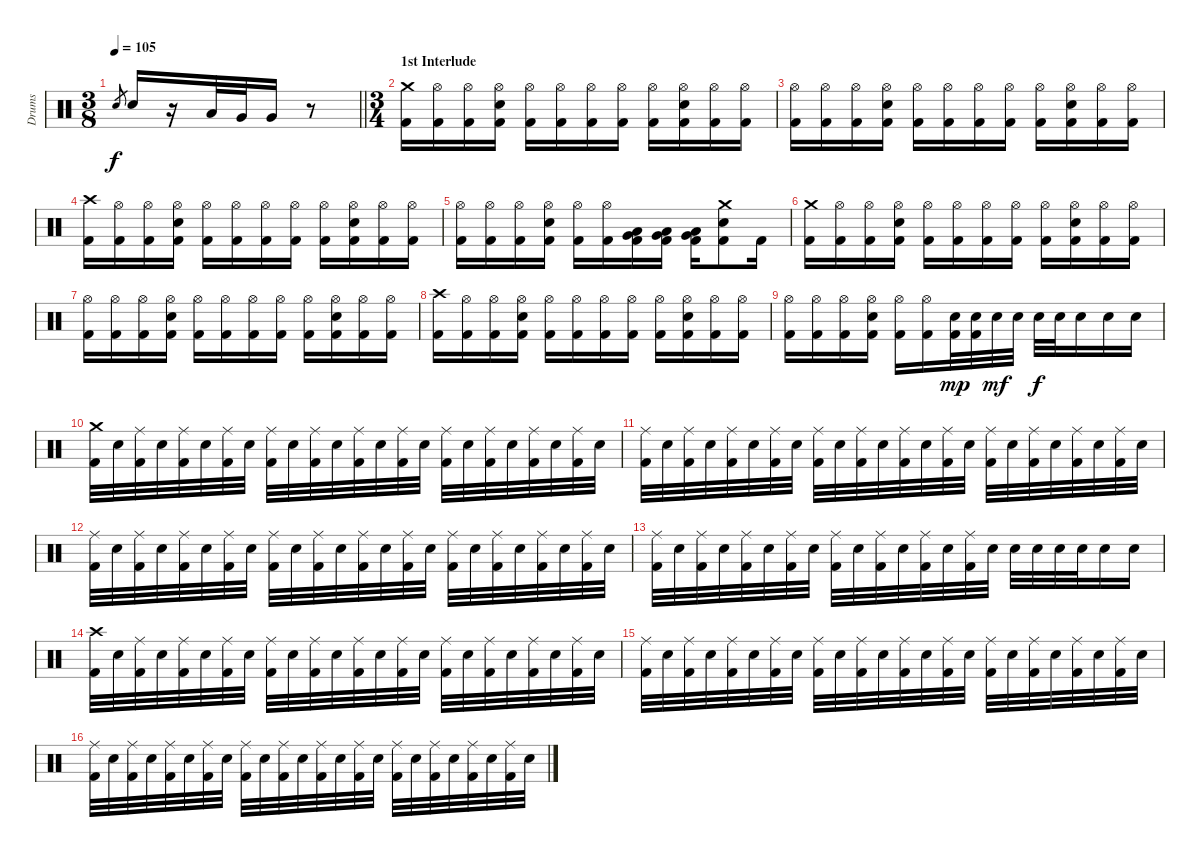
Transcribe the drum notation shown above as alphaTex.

\track ("Drums" "Drums") {instrument percussion}
\staff {score}
\articulation defaults
\ts (3 8)
\tempo 105
\clef neutral
\barLineRight lightlight
\ks c "Electric Snare (hit)".8{gr dy f} "Electric Snare (hit)".16
r.16 "Low Tom (hit)".32 "Very Low Tom (hit)".32 "Very Low Tom (hit)".16 r.8 |
\ts (3 4)
\section ("" "1st Interlude")
("Kick (hit) 2" "Crash medium (hit)").16 ("Kick (hit) 2" "Hi-Hat (open)").16 ("Kick (hit) 2" "Hi-Hat (open)").16 ("Kick (hit) 2" "Electric Snare (hit)" "Hi-Hat (open)").16 ("Kick (hit) 2" "Hi-Hat (open)").16 ("Kick (hit) 2" "Hi-Hat (open)").16 ("Kick (hit) 2" "Hi-Hat (open)").16 ("Kick (hit) 2" "Hi-Hat (open)").16 ("Kick (hit) 2" "Hi-Hat (open)").16 ("Kick (hit) 2" "Electric Snare (hit)" "Hi-Hat (open)").16 ("Kick (hit) 2" "Hi-Hat (open)").16 ("Kick (hit) 2" "Hi-Hat (open)").16 |
("Kick (hit) 2" "Hi-Hat (open)").16 ("Kick (hit) 2" "Hi-Hat (open)").16 ("Kick (hit) 2" "Hi-Hat (open)").16 ("Kick (hit) 2" "Electric Snare (hit)" "Hi-Hat (open)").16 ("Kick (hit) 2" "Hi-Hat (open)").16 ("Kick (hit) 2" "Hi-Hat (open)").16 ("Kick (hit) 2" "Hi-Hat (open)").16 ("Kick (hit) 2" "Hi-Hat (open)").16 ("Kick (hit) 2" "Hi-Hat (open)").16 ("Kick (hit) 2" "Electric Snare (hit)" "Hi-Hat (open)").16 ("Kick (hit) 2" "Hi-Hat (open)").16 ("Kick (hit) 2" "Hi-Hat (open)").16 |
("Kick (hit) 2" "Crash high (hit)").16 ("Kick (hit) 2" "Hi-Hat (open)").16 ("Kick (hit) 2" "Hi-Hat (open)").16 ("Kick (hit) 2" "Electric Snare (hit)" "Hi-Hat (open)").16 ("Kick (hit) 2" "Hi-Hat (open)").16 ("Kick (hit) 2" "Hi-Hat (open)").16 ("Kick (hit) 2" "Hi-Hat (open)").16 ("Kick (hit) 2" "Hi-Hat (open)").16 ("Kick (hit) 2" "Hi-Hat (open)").16 ("Kick (hit) 2" "Electric Snare (hit)" "Hi-Hat (open)").16 ("Kick (hit) 2" "Hi-Hat (open)").16 ("Kick (hit) 2" "Hi-Hat (open)").16 |
("Kick (hit) 2" "Hi-Hat (open)").16 ("Kick (hit) 2" "Hi-Hat (open)").16 ("Kick (hit) 2" "Hi-Hat (open)").16 ("Kick (hit) 2" "Electric Snare (hit)" "Hi-Hat (open)").16 ("Kick (hit) 2" "Hi-Hat (open)").16 ("Kick (hit) 2" "Hi-Hat (open)").16 ("Kick (hit) 2" "Very Low Tom (hit)" "Low Tom (hit)").16 ("Kick (hit) 2" "Very Low Tom (hit)" "Low Tom (hit)").16 ("Kick (hit) 2" "Very Low Tom (hit)" "Low Tom (hit)").16 ("Kick (hit) 2" "Electric Snare (hit)" "Crash medium (hit)").8 "Kick (hit) 2".16 |
("Kick (hit) 2" "Crash medium (hit)").16 ("Kick (hit) 2" "Hi-Hat (open)").16 ("Kick (hit) 2" "Hi-Hat (open)").16 ("Kick (hit) 2" "Electric Snare (hit)" "Hi-Hat (open)").16 ("Kick (hit) 2" "Hi-Hat (open)").16 ("Kick (hit) 2" "Hi-Hat (open)").16 ("Kick (hit) 2" "Hi-Hat (open)").16 ("Kick (hit) 2" "Hi-Hat (open)").16 ("Kick (hit) 2" "Hi-Hat (open)").16 ("Kick (hit) 2" "Electric Snare (hit)" "Hi-Hat (open)").16 ("Kick (hit) 2" "Hi-Hat (open)").16 ("Kick (hit) 2" "Hi-Hat (open)").16 |
("Kick (hit) 2" "Hi-Hat (open)").16 ("Kick (hit) 2" "Hi-Hat (open)").16 ("Kick (hit) 2" "Hi-Hat (open)").16 ("Kick (hit) 2" "Electric Snare (hit)" "Hi-Hat (open)").16 ("Kick (hit) 2" "Hi-Hat (open)").16 ("Kick (hit) 2" "Hi-Hat (open)").16 ("Kick (hit) 2" "Hi-Hat (open)").16 ("Kick (hit) 2" "Hi-Hat (open)").16 ("Kick (hit) 2" "Hi-Hat (open)").16 ("Kick (hit) 2" "Electric Snare (hit)" "Hi-Hat (open)").16 ("Kick (hit) 2" "Hi-Hat (open)").16 ("Kick (hit) 2" "Hi-Hat (open)").16 |
("Kick (hit) 2" "Crash high (hit)").16 ("Kick (hit) 2" "Hi-Hat (open)").16 ("Kick (hit) 2" "Hi-Hat (open)").16 ("Kick (hit) 2" "Electric Snare (hit)" "Hi-Hat (open)").16 ("Kick (hit) 2" "Hi-Hat (open)").16 ("Kick (hit) 2" "Hi-Hat (open)").16 ("Kick (hit) 2" "Hi-Hat (open)").16 ("Kick (hit) 2" "Hi-Hat (open)").16 ("Kick (hit) 2" "Hi-Hat (open)").16 ("Kick (hit) 2" "Electric Snare (hit)" "Hi-Hat (open)").16 ("Kick (hit) 2" "Hi-Hat (open)").16 ("Kick (hit) 2" "Hi-Hat (open)").16 |
("Kick (hit) 2" "Hi-Hat (open)").16 ("Kick (hit) 2" "Hi-Hat (open)").16 ("Kick (hit) 2" "Hi-Hat (open)").16 ("Kick (hit) 2" "Electric Snare (hit)" "Hi-Hat (open)").16 ("Kick (hit) 2" "Hi-Hat (open)").16 ("Kick (hit) 2" "Hi-Hat (open)").16 ("Kick (hit) 2" "Electric Snare (hit)").32{dy mp} ("Kick (hit) 2" "Electric Snare (hit)").32 "Electric Snare (hit)".32{dy mf} "Electric Snare (hit)".32 "Electric Snare (hit)".32{dy f} "Electric Snare (hit)".32 "Electric Snare (hit)".16 "Electric Snare (hit)".16 "Electric Snare (hit)".16 |
("Kick (hit) 2" "Crash medium (hit)").32 "Electric Snare (hit)".32 ("Kick (hit) 2" "Ride (middle)").32 "Electric Snare (hit)".32 ("Kick (hit) 2" "Ride (middle)").32 "Electric Snare (hit)".32 ("Kick (hit) 2" "Ride (middle)").32 "Electric Snare (hit)".32 ("Kick (hit) 2" "Ride (middle)").32 "Electric Snare (hit)".32 ("Kick (hit) 2" "Ride (middle)").32 "Electric Snare (hit)".32 ("Kick (hit) 2" "Ride (middle)").32 "Electric Snare (hit)".32 ("Kick (hit) 2" "Ride (middle)").32 "Electric Snare (hit)".32 ("Kick (hit) 2" "Ride (middle)").32 "Electric Snare (hit)".32 ("Kick (hit) 2" "Ride (middle)").32 "Electric Snare (hit)".32 ("Kick (hit) 2" "Ride (middle)").32 "Electric Snare (hit)".32 ("Kick (hit) 2" "Ride (middle)").32 "Electric Snare (hit)".32 |
("Kick (hit) 2" "Ride (middle)").32 "Electric Snare (hit)".32 ("Kick (hit) 2" "Ride (middle)").32 "Electric Snare (hit)".32 ("Kick (hit) 2" "Ride (middle)").32 "Electric Snare (hit)".32 ("Kick (hit) 2" "Ride (middle)").32 "Electric Snare (hit)".32 ("Kick (hit) 2" "Ride (middle)").32 "Electric Snare (hit)".32 ("Kick (hit) 2" "Ride (middle)").32 "Electric Snare (hit)".32 ("Kick (hit) 2" "Ride (middle)").32 "Electric Snare (hit)".32 ("Kick (hit) 2" "Ride (middle)").32 "Electric Snare (hit)".32 ("Kick (hit) 2" "Ride (middle)").32 "Electric Snare (hit)".32 ("Kick (hit) 2" "Ride (middle)").32 "Electric Snare (hit)".32 ("Kick (hit) 2" "Ride (middle)").32 "Electric Snare (hit)".32 ("Kick (hit) 2" "Ride (middle)").32 "Electric Snare (hit)".32 |
("Kick (hit) 2" "Ride (middle)").32 "Electric Snare (hit)".32 ("Kick (hit) 2" "Ride (middle)").32 "Electric Snare (hit)".32 ("Kick (hit) 2" "Ride (middle)").32 "Electric Snare (hit)".32 ("Kick (hit) 2" "Ride (middle)").32 "Electric Snare (hit)".32 ("Kick (hit) 2" "Ride (middle)").32 "Electric Snare (hit)".32 ("Kick (hit) 2" "Ride (middle)").32 "Electric Snare (hit)".32 ("Kick (hit) 2" "Ride (middle)").32 "Electric Snare (hit)".32 ("Kick (hit) 2" "Ride (middle)").32 "Electric Snare (hit)".32 ("Kick (hit) 2" "Ride (middle)").32 "Electric Snare (hit)".32 ("Kick (hit) 2" "Ride (middle)").32 "Electric Snare (hit)".32 ("Kick (hit) 2" "Ride (middle)").32 "Electric Snare (hit)".32 ("Kick (hit) 2" "Ride (middle)").32 "Electric Snare (hit)".32 |
("Kick (hit) 2" "Ride (middle)").32 "Electric Snare (hit)".32 ("Kick (hit) 2" "Ride (middle)").32 "Electric Snare (hit)".32 ("Kick (hit) 2" "Ride (middle)").32 "Electric Snare (hit)".32 ("Kick (hit) 2" "Ride (middle)").32 "Electric Snare (hit)".32 ("Kick (hit) 2" "Ride (middle)").32 "Electric Snare (hit)".32 ("Kick (hit) 2" "Ride (middle)").32 "Electric Snare (hit)".32 ("Kick (hit) 2" "Ride (middle)").32 "Electric Snare (hit)".32 ("Kick (hit) 2" "Ride (middle)").32 "Electric Snare (hit)".32 "Electric Snare (hit)".32 "Electric Snare (hit)".32 "Electric Snare (hit)".32 "Electric Snare (hit)".32 "Electric Snare (hit)".16 "Electric Snare (hit)".16 |
("Kick (hit) 2" "Crash high (hit)").32 "Electric Snare (hit)".32 ("Kick (hit) 2" "Ride (middle)").32 "Electric Snare (hit)".32 ("Kick (hit) 2" "Ride (middle)").32 "Electric Snare (hit)".32 ("Kick (hit) 2" "Ride (middle)").32 "Electric Snare (hit)".32 ("Kick (hit) 2" "Ride (middle)").32 "Electric Snare (hit)".32 ("Kick (hit) 2" "Ride (middle)").32 "Electric Snare (hit)".32 ("Kick (hit) 2" "Ride (middle)").32 "Electric Snare (hit)".32 ("Kick (hit) 2" "Ride (middle)").32 "Electric Snare (hit)".32 ("Kick (hit) 2" "Ride (middle)").32 "Electric Snare (hit)".32 ("Kick (hit) 2" "Ride (middle)").32 "Electric Snare (hit)".32 ("Kick (hit) 2" "Ride (middle)").32 "Electric Snare (hit)".32 ("Kick (hit) 2" "Ride (middle)").32 "Electric Snare (hit)".32 |
("Kick (hit) 2" "Ride (middle)").32 "Electric Snare (hit)".32 ("Kick (hit) 2" "Ride (middle)").32 "Electric Snare (hit)".32 ("Kick (hit) 2" "Ride (middle)").32 "Electric Snare (hit)".32 ("Kick (hit) 2" "Ride (middle)").32 "Electric Snare (hit)".32 ("Kick (hit) 2" "Ride (middle)").32 "Electric Snare (hit)".32 ("Kick (hit) 2" "Ride (middle)").32 "Electric Snare (hit)".32 ("Kick (hit) 2" "Ride (middle)").32 "Electric Snare (hit)".32 ("Kick (hit) 2" "Ride (middle)").32 "Electric Snare (hit)".32 ("Kick (hit) 2" "Ride (middle)").32 "Electric Snare (hit)".32 ("Kick (hit) 2" "Ride (middle)").32 "Electric Snare (hit)".32 ("Kick (hit) 2" "Ride (middle)").32 "Electric Snare (hit)".32 ("Kick (hit) 2" "Ride (middle)").32 "Electric Snare (hit)".32 |
("Kick (hit) 2" "Ride (middle)").32 "Electric Snare (hit)".32 ("Kick (hit) 2" "Ride (middle)").32 "Electric Snare (hit)".32 ("Kick (hit) 2" "Ride (middle)").32 "Electric Snare (hit)".32 ("Kick (hit) 2" "Ride (middle)").32 "Electric Snare (hit)".32 ("Kick (hit) 2" "Ride (middle)").32 "Electric Snare (hit)".32 ("Kick (hit) 2" "Ride (middle)").32 "Electric Snare (hit)".32 ("Kick (hit) 2" "Ride (middle)").32 "Electric Snare (hit)".32 ("Kick (hit) 2" "Ride (middle)").32 "Electric Snare (hit)".32 ("Kick (hit) 2" "Ride (middle)").32 "Electric Snare (hit)".32 ("Kick (hit) 2" "Ride (middle)").32 "Electric Snare (hit)".32 ("Kick (hit) 2" "Ride (middle)").32 "Electric Snare (hit)".32 ("Kick (hit) 2" "Ride (middle)").32 "Electric Snare (hit)".32
